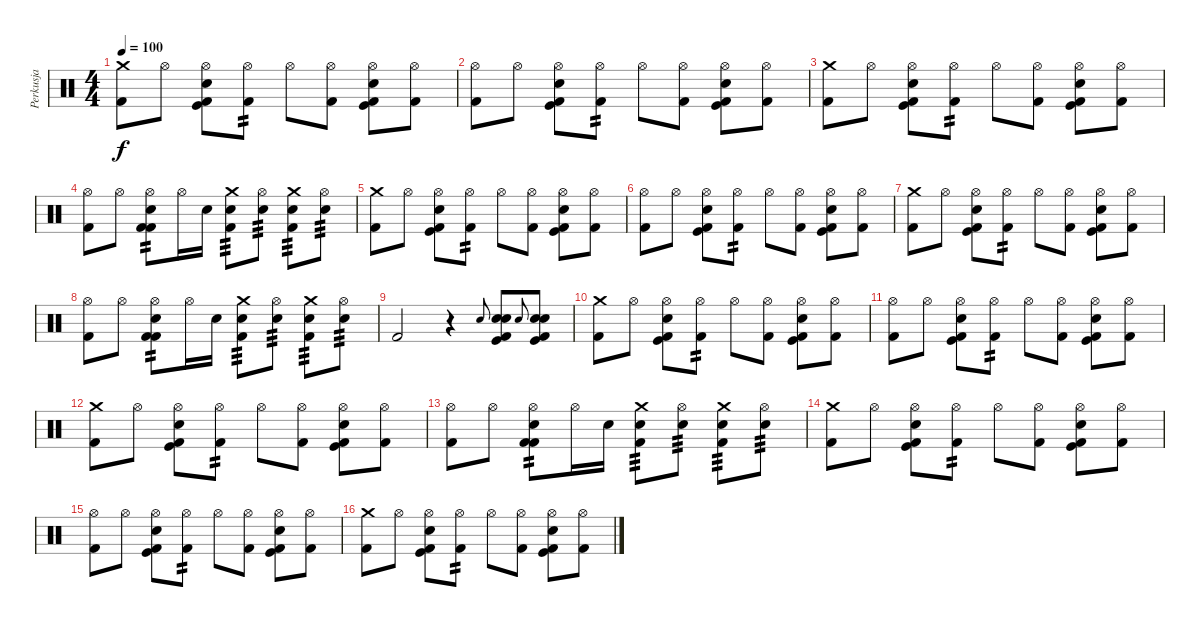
\track ("Perkusja" "Perkusja") {instrument percussion}
\staff {score}
\articulation defaults
\ts (4 4)
\tempo 100
\clef neutral
\ks c
("Crash medium (hit)" "Kick (hit) 2").8{dy f} "Hi-Hat (open)".8 ("Hi-Hat (open)" "Electric Snare (hit)" "Kick (hit) 2" "Kick (hit)").8 ("Hi-Hat (open)" "Kick (hit) 2").8{tp 2} "Hi-Hat (open)".8 ("Hi-Hat (open)" "Kick (hit) 2").8 ("Hi-Hat (open)" "Electric Snare (hit)" "Kick (hit) 2" "Kick (hit)").8 ("Hi-Hat (open)" "Kick (hit) 2").8 |
("Hi-Hat (open)" "Kick (hit) 2").8 "Hi-Hat (open)".8 ("Hi-Hat (open)" "Electric Snare (hit)" "Kick (hit) 2" "Kick (hit)").8 ("Hi-Hat (open)" "Kick (hit) 2").8{tp 2} "Hi-Hat (open)".8 ("Hi-Hat (open)" "Kick (hit) 2").8 ("Hi-Hat (open)" "Electric Snare (hit)" "Kick (hit) 2" "Kick (hit)").8 ("Hi-Hat (open)" "Kick (hit) 2").8 |
("Crash medium (hit)" "Kick (hit) 2").8 "Hi-Hat (open)".8 ("Hi-Hat (open)" "Electric Snare (hit)" "Kick (hit) 2" "Kick (hit)").8 ("Hi-Hat (open)" "Kick (hit) 2").8{tp 2} "Hi-Hat (open)".8 ("Hi-Hat (open)" "Kick (hit) 2").8 ("Hi-Hat (open)" "Electric Snare (hit)" "Kick (hit) 2" "Kick (hit)").8 ("Hi-Hat (open)" "Kick (hit) 2").8 |
("Hi-Hat (open)" "Kick (hit) 2").8 "Hi-Hat (open)".8 ("Hi-Hat (open)" "Electric Snare (hit)" "Kick (hit) 2" "Kick (hit) 2").8{tp 2} "Hi-Hat (open)".16 "Electric Snare (hit)".16 ("Crash medium (hit)" "Snare (hit) 2" "Kick (hit) 2").8{tp 3} ("Hi-Hat (open)" "Snare (hit) 2").8{tp 3} ("Crash medium (hit)" "Electric Snare (hit)" "Kick (hit) 2").8{tp 3} ("Hi-Hat (open)" "Electric Snare (hit)").8{tp 3} |
("Crash medium (hit)" "Kick (hit) 2").8 "Hi-Hat (open)".8 ("Hi-Hat (open)" "Electric Snare (hit)" "Kick (hit) 2" "Kick (hit)").8 ("Hi-Hat (open)" "Kick (hit) 2").8{tp 2} "Hi-Hat (open)".8 ("Hi-Hat (open)" "Kick (hit) 2").8 ("Hi-Hat (open)" "Electric Snare (hit)" "Kick (hit) 2" "Kick (hit)").8 ("Hi-Hat (open)" "Kick (hit) 2").8 |
("Hi-Hat (open)" "Kick (hit) 2").8 "Hi-Hat (open)".8 ("Hi-Hat (open)" "Electric Snare (hit)" "Kick (hit) 2" "Kick (hit)").8 ("Hi-Hat (open)" "Kick (hit) 2").8{tp 2} "Hi-Hat (open)".8 ("Hi-Hat (open)" "Kick (hit) 2").8 ("Hi-Hat (open)" "Electric Snare (hit)" "Kick (hit) 2" "Kick (hit)").8 ("Hi-Hat (open)" "Kick (hit) 2").8 |
("Crash medium (hit)" "Kick (hit) 2").8 "Hi-Hat (open)".8 ("Hi-Hat (open)" "Electric Snare (hit)" "Kick (hit) 2" "Kick (hit)").8 ("Hi-Hat (open)" "Kick (hit) 2").8{tp 2} "Hi-Hat (open)".8 ("Hi-Hat (open)" "Kick (hit) 2").8 ("Hi-Hat (open)" "Electric Snare (hit)" "Kick (hit) 2" "Kick (hit)").8 ("Hi-Hat (open)" "Kick (hit) 2").8 |
("Hi-Hat (open)" "Kick (hit) 2").8 "Hi-Hat (open)".8 ("Hi-Hat (open)" "Electric Snare (hit)" "Kick (hit) 2" "Kick (hit) 2").8{tp 2} "Hi-Hat (open)".16 "Electric Snare (hit)".16 ("Crash medium (hit)" "Snare (hit) 2" "Kick (hit) 2").8{tp 3} ("Hi-Hat (open)" "Snare (hit) 2").8{tp 3} ("Crash medium (hit)" "Electric Snare (hit)" "Kick (hit) 2").8{tp 3} ("Hi-Hat (open)" "Electric Snare (hit)").8{tp 3} |
"Kick (hit) 2".2 r.4 "Electric Snare (hit)".8{gr onbeat} ("Snare (hit) 2" "Electric Snare (hit)" "Kick (hit)" "Kick (hit) 2").8 "Electric Snare (hit)".8{gr onbeat} ("Snare (hit) 2" "Electric Snare (hit)" "Kick (hit)" "Kick (hit) 2").8 |
("Crash medium (hit)" "Kick (hit) 2").8 "Hi-Hat (open)".8 ("Hi-Hat (open)" "Electric Snare (hit)" "Kick (hit) 2" "Kick (hit)").8 ("Hi-Hat (open)" "Kick (hit) 2").8{tp 2} "Hi-Hat (open)".8 ("Hi-Hat (open)" "Kick (hit) 2").8 ("Hi-Hat (open)" "Electric Snare (hit)" "Kick (hit) 2" "Kick (hit)").8 ("Hi-Hat (open)" "Kick (hit) 2").8 |
("Hi-Hat (open)" "Kick (hit) 2").8 "Hi-Hat (open)".8 ("Hi-Hat (open)" "Electric Snare (hit)" "Kick (hit) 2" "Kick (hit)").8 ("Hi-Hat (open)" "Kick (hit) 2").8{tp 2} "Hi-Hat (open)".8 ("Hi-Hat (open)" "Kick (hit) 2").8 ("Hi-Hat (open)" "Electric Snare (hit)" "Kick (hit) 2" "Kick (hit)").8 ("Hi-Hat (open)" "Kick (hit) 2").8 |
("Crash medium (hit)" "Kick (hit) 2").8 "Hi-Hat (open)".8 ("Hi-Hat (open)" "Electric Snare (hit)" "Kick (hit) 2" "Kick (hit)").8 ("Hi-Hat (open)" "Kick (hit) 2").8{tp 2} "Hi-Hat (open)".8 ("Hi-Hat (open)" "Kick (hit) 2").8 ("Hi-Hat (open)" "Electric Snare (hit)" "Kick (hit) 2" "Kick (hit)").8 ("Hi-Hat (open)" "Kick (hit) 2").8 |
("Hi-Hat (open)" "Kick (hit) 2").8 "Hi-Hat (open)".8 ("Hi-Hat (open)" "Electric Snare (hit)" "Kick (hit) 2" "Kick (hit) 2").8{tp 2} "Hi-Hat (open)".16 "Electric Snare (hit)".16 ("Crash medium (hit)" "Snare (hit) 2" "Kick (hit) 2").8{tp 3} ("Hi-Hat (open)" "Snare (hit) 2").8{tp 3} ("Crash medium (hit)" "Electric Snare (hit)" "Kick (hit) 2").8{tp 3} ("Hi-Hat (open)" "Electric Snare (hit)").8{tp 3} |
("Crash medium (hit)" "Kick (hit) 2").8 "Hi-Hat (open)".8 ("Hi-Hat (open)" "Electric Snare (hit)" "Kick (hit) 2" "Kick (hit)").8 ("Hi-Hat (open)" "Kick (hit) 2").8{tp 2} "Hi-Hat (open)".8 ("Hi-Hat (open)" "Kick (hit) 2").8 ("Hi-Hat (open)" "Electric Snare (hit)" "Kick (hit) 2" "Kick (hit)").8 ("Hi-Hat (open)" "Kick (hit) 2").8 |
("Hi-Hat (open)" "Kick (hit) 2").8 "Hi-Hat (open)".8 ("Hi-Hat (open)" "Electric Snare (hit)" "Kick (hit) 2" "Kick (hit)").8 ("Hi-Hat (open)" "Kick (hit) 2").8{tp 2} "Hi-Hat (open)".8 ("Hi-Hat (open)" "Kick (hit) 2").8 ("Hi-Hat (open)" "Electric Snare (hit)" "Kick (hit) 2" "Kick (hit)").8 ("Hi-Hat (open)" "Kick (hit) 2").8 |
("Crash medium (hit)" "Kick (hit) 2").8 "Hi-Hat (open)".8 ("Hi-Hat (open)" "Electric Snare (hit)" "Kick (hit) 2" "Kick (hit)").8 ("Hi-Hat (open)" "Kick (hit) 2").8{tp 2} "Hi-Hat (open)".8 ("Hi-Hat (open)" "Kick (hit) 2").8 ("Hi-Hat (open)" "Electric Snare (hit)" "Kick (hit) 2" "Kick (hit)").8 ("Hi-Hat (open)" "Kick (hit) 2").8
